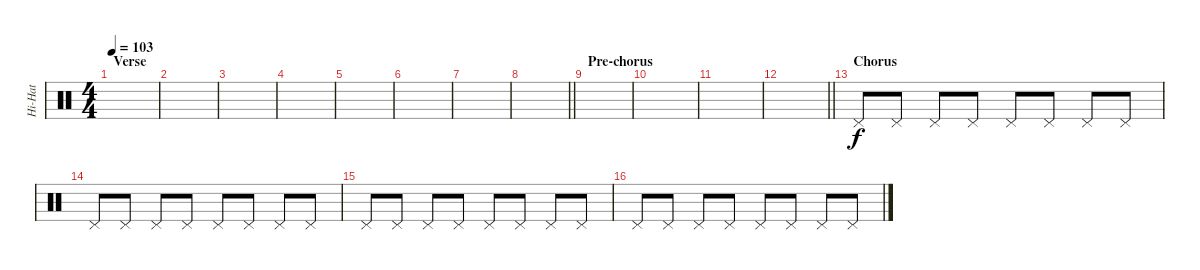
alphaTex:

\track ("Hi-Hat" "Hi-Hat") {instrument percussion}
\staff {score}
\articulation defaults
\ts (4 4)
\section ("" "Verse")
\tempo 103
\clef neutral
\ks c
|
|
|
|
|
|
|
\barLineRight lightlight
|
\section ("" "Pre-chorus")
|
|
|
\barLineRight lightlight
|
\section ("" "Chorus")
"Pedal Hi-Hat (hit)".8 "Pedal Hi-Hat (hit)".8 "Pedal Hi-Hat (hit)".8 "Pedal Hi-Hat (hit)".8 "Pedal Hi-Hat (hit)".8 "Pedal Hi-Hat (hit)".8 "Pedal Hi-Hat (hit)".8 "Pedal Hi-Hat (hit)".8 |
"Pedal Hi-Hat (hit)".8 "Pedal Hi-Hat (hit)".8 "Pedal Hi-Hat (hit)".8 "Pedal Hi-Hat (hit)".8 "Pedal Hi-Hat (hit)".8 "Pedal Hi-Hat (hit)".8 "Pedal Hi-Hat (hit)".8 "Pedal Hi-Hat (hit)".8 |
"Pedal Hi-Hat (hit)".8 "Pedal Hi-Hat (hit)".8 "Pedal Hi-Hat (hit)".8 "Pedal Hi-Hat (hit)".8 "Pedal Hi-Hat (hit)".8 "Pedal Hi-Hat (hit)".8 "Pedal Hi-Hat (hit)".8 "Pedal Hi-Hat (hit)".8 |
"Pedal Hi-Hat (hit)".8 "Pedal Hi-Hat (hit)".8 "Pedal Hi-Hat (hit)".8 "Pedal Hi-Hat (hit)".8 "Pedal Hi-Hat (hit)".8 "Pedal Hi-Hat (hit)".8 "Pedal Hi-Hat (hit)".8 "Pedal Hi-Hat (hit)".8
